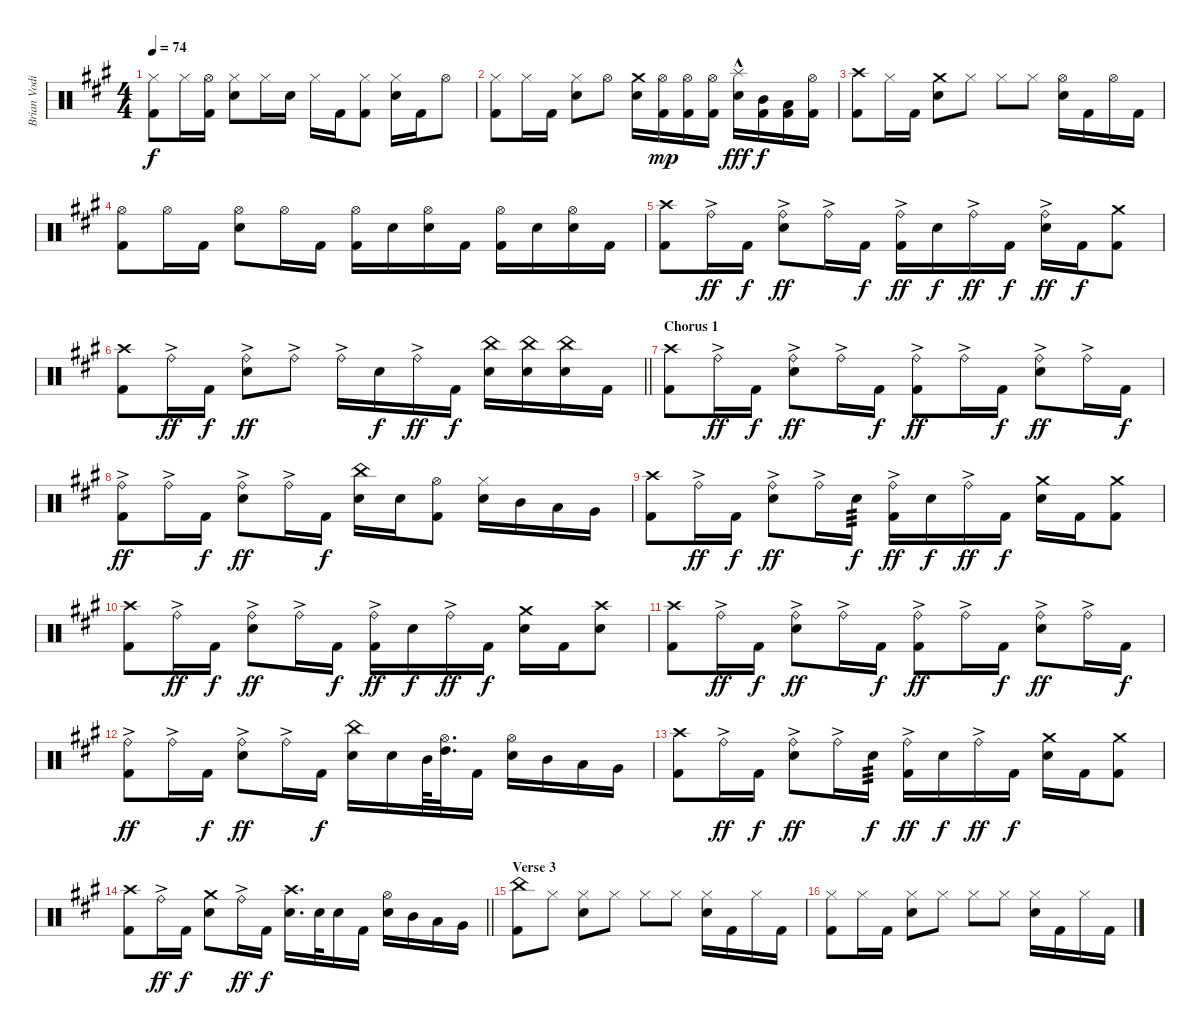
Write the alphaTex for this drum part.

\track ("Brian Vodinh" "Brian Vodi") {instrument percussion}
\staff {score}
\articulation defaults
\ts (4 4)
\tempo 74
\clef neutral
\ks f#minor
("Hi-Hat (closed)" "Kick (hit) 2").8{dy f} "Hi-Hat (closed)".16 ("Hi-Hat (open)" "Kick (hit) 2").16 ("Hi-Hat (closed)" "Electric Snare (hit)").8 "Hi-Hat (closed)".16 "Electric Snare (hit)".16 "Hi-Hat (closed)".16 "Kick (hit) 2".16 ("Hi-Hat (closed)" "Kick (hit) 2").8 ("Hi-Hat (closed)" "Electric Snare (hit)").16 "Kick (hit) 2".16 "Hi-Hat (open)".8 |
("Hi-Hat (closed)" "Kick (hit) 2").8 "Hi-Hat (closed)".16 "Kick (hit) 2".16 ("Hi-Hat (closed)" "Electric Snare (hit)").8 "Hi-Hat (open)".8 ("Crash medium (hit)" "Electric Snare (hit)").16 ("Hi-Hat (open)" "Kick (hit) 2").16{dy mp} ("Hi-Hat (open)" "Kick (hit) 2").16 ("Hi-Hat (open)" "Kick (hit) 2").16 ("Splash (hit)"{hac} "Electric Snare (hit)").16{dy fff} ("Mid Tom (hit)" "Kick (hit) 2").16{dy f} ("Low Tom (hit)" "Kick (hit) 2").16 ("Hi-Hat (open)" "Kick (hit) 2").16 |
("Crash high (hit)" "Kick (hit) 2").8 "Hi-Hat (closed)".16 "Kick (hit) 2".16 ("Crash medium (hit)" "Electric Snare (hit)").8 "Hi-Hat (closed)".8 "Hi-Hat (closed)".8 "Hi-Hat (closed)".8 ("Hi-Hat (open)" "Electric Snare (hit)").16 "Kick (hit) 2".16 "Hi-Hat (open)".16 "Kick (hit) 2".16 |
("Hi-Hat (open)" "Kick (hit) 2").8 "Hi-Hat (open)".16 "Kick (hit) 2".16 ("Hi-Hat (open)" "Electric Snare (hit)").8 "Hi-Hat (open)".16 "Kick (hit) 2".16 ("Hi-Hat (open)" "Kick (hit) 2").16 "Electric Snare (hit)".16 ("Hi-Hat (open)" "Electric Snare (hit)").16 "Kick (hit) 2".16 ("Hi-Hat (open)" "Kick (hit) 2").16 "Electric Snare (hit)".16 ("Hi-Hat (open)" "Electric Snare (hit)").16 "Kick (hit) 2".16 |
("Crash high (hit)" "Kick (hit) 2").8 "Ride (bell)"{ac}.16{dy ff} "Kick (hit) 2".16{dy f} ("Ride (bell)"{ac} "Electric Snare (hit)").8{dy ff} "Ride (bell)"{ac}.16 "Kick (hit) 2".16{dy f} ("Ride (bell)"{ac} "Kick (hit) 2").16{dy ff} "Electric Snare (hit)".16{dy f} "Ride (bell)"{ac}.16{dy ff} "Kick (hit) 2".16{dy f} ("Ride (bell)"{ac} "Electric Snare (hit)").16{dy ff} "Kick (hit) 2".16{dy f} ("Crash medium (hit)" "Kick (hit) 2").8 |
\barLineRight lightlight
("Crash high (hit)" "Kick (hit) 2").8 "Ride (bell)"{ac}.16{dy ff} "Kick (hit) 2".16{dy f} ("Ride (bell)"{ac} "Electric Snare (hit)").8{dy ff} "Ride (bell)"{ac}.8 "Ride (bell)"{ac}.16 "Electric Snare (hit)".16{dy f} "Ride (bell)"{ac}.16{dy ff} "Kick (hit) 2".16{dy f} ("China (hit)" "Electric Snare (hit)").16 ("China (hit)" "Electric Snare (hit)").16 ("China (hit)" "Electric Snare (hit)").16 "Kick (hit) 2".16 |
\section ("" "Chorus 1")
("Crash high (hit)" "Kick (hit) 2").8 "Ride (bell)"{ac}.16{dy ff} "Kick (hit) 2".16{dy f} ("Ride (bell)"{ac} "Electric Snare (hit)").8{dy ff} "Ride (bell)"{ac}.16 "Kick (hit) 2".16{dy f} ("Ride (bell)"{ac} "Kick (hit) 2").8{dy ff} "Ride (bell)"{ac}.16 "Kick (hit) 2".16{dy f} ("Ride (bell)"{ac} "Electric Snare (hit)").8{dy ff} "Ride (bell)"{ac}.16 "Kick (hit) 2".16{dy f} |
("Ride (bell)"{ac} "Kick (hit) 2").8{dy ff} "Ride (bell)"{ac}.16 "Kick (hit) 2".16{dy f} ("Ride (bell)"{ac} "Electric Snare (hit)").8{dy ff} "Ride (bell)"{ac}.16 "Kick (hit) 2".16{dy f} ("China (hit)" "Electric Snare (hit)").16 "Electric Snare (hit)".16 ("Hi-Hat (open)" "Kick (hit) 2").8 ("Hi-Hat (closed)" "Electric Snare (hit)").16 "Mid Tom (hit)".16 "Low Tom (hit)".16 "Very Low Tom (hit)".16 |
("Crash high (hit)" "Kick (hit) 2").8 "Ride (bell)"{ac}.16{dy ff} "Kick (hit) 2".16{dy f} ("Ride (bell)"{ac} "Electric Snare (hit)").8{dy ff} "Ride (bell)"{ac}.16 "Electric Snare (hit)".16{tp 3 dy f} ("Ride (bell)"{ac} "Kick (hit) 2").16{dy ff} "Electric Snare (hit)".16{dy f} "Ride (bell)"{ac}.16{dy ff} "Kick (hit) 2".16{dy f} ("Crash medium (hit)" "Electric Snare (hit)").16 "Kick (hit) 2".16 ("Crash medium (hit)" "Kick (hit) 2").8 |
("Crash high (hit)" "Kick (hit) 2").8 "Ride (bell)"{ac}.16{dy ff} "Kick (hit) 2".16{dy f} ("Ride (bell)"{ac} "Electric Snare (hit)").8{dy ff} "Ride (bell)"{ac}.16 "Kick (hit) 2".16{dy f} ("Ride (bell)"{ac} "Kick (hit) 2").16{dy ff} "Electric Snare (hit)".16{dy f} "Ride (bell)"{ac}.16{dy ff} "Kick (hit) 2".16{dy f} ("Crash medium (hit)" "Electric Snare (hit)").16 "Kick (hit) 2".16 ("Crash high (hit)" "Electric Snare (hit)").8 |
("Crash high (hit)" "Kick (hit) 2").8 "Ride (bell)"{ac}.16{dy ff} "Kick (hit) 2".16{dy f} ("Ride (bell)"{ac} "Electric Snare (hit)").8{dy ff} "Ride (bell)"{ac}.16 "Kick (hit) 2".16{dy f} ("Ride (bell)"{ac} "Kick (hit) 2").8{dy ff} "Ride (bell)"{ac}.16 "Kick (hit) 2".16{dy f} ("Ride (bell)"{ac} "Electric Snare (hit)").8{dy ff} "Ride (bell)"{ac}.16 "Kick (hit) 2".16{dy f} |
("Ride (bell)"{ac} "Kick (hit) 2").8{dy ff} "Ride (bell)"{ac}.16 "Kick (hit) 2".16{dy f} ("Ride (bell)"{ac} "Electric Snare (hit)").8{dy ff} "Ride (bell)"{ac}.16 "Kick (hit) 2".16{dy f} ("China (hit)" "Electric Snare (hit)").16 "Electric Snare (hit)".16 "Mid Tom (hit)".64 ("Hi-Hat (open)" "High Tom (hit)").32{d} "Kick (hit) 2".16 ("Hi-Hat (open)" "Electric Snare (hit)").16 "Mid Tom (hit)".16 "Low Tom (hit)".16 "Very Low Tom (hit)".16 |
("Crash high (hit)" "Kick (hit) 2").8 "Ride (bell)"{ac}.16{dy ff} "Kick (hit) 2".16{dy f} ("Ride (bell)"{ac} "Electric Snare (hit)").8{dy ff} "Ride (bell)"{ac}.16 "Electric Snare (hit)".16{tp 3 dy f} ("Ride (bell)"{ac} "Kick (hit) 2").16{dy ff} "Electric Snare (hit)".16{dy f} "Ride (bell)"{ac}.16{dy ff} "Kick (hit) 2".16{dy f} ("Crash medium (hit)" "Electric Snare (hit)").16 "Kick (hit) 2".16 ("Crash medium (hit)" "Kick (hit) 2").8 |
\barLineRight lightlight
("Crash high (hit)" "Kick (hit) 2").8 "Ride (bell)"{ac}.16{dy ff} "Kick (hit) 2".16{dy f} ("Crash medium (hit)" "Electric Snare (hit)").8 "Ride (bell)"{ac}.16{dy ff} "Kick (hit) 2".16{dy f} ("Crash high (hit)" "Electric Snare (hit)").16{d} "Electric Snare (hit)".32 "Electric Snare (hit)".16 "Kick (hit) 2".16 ("Hi-Hat (open)" "Electric Snare (hit)").16 "Mid Tom (hit)".16 "Low Tom (hit)".16 "Very Low Tom (hit)".16 |
\section ("" "Verse 3")
("China (hit)" "Kick (hit) 2").8 "Hi-Hat (closed)".8 ("Hi-Hat (closed)" "Electric Snare (hit)").8 "Hi-Hat (closed)".8 "Hi-Hat (closed)".8 "Hi-Hat (closed)".8 ("Hi-Hat (closed)" "Electric Snare (hit)").16 "Kick (hit) 2".16 "Hi-Hat (closed)".16 "Kick (hit) 2".16 |
("Hi-Hat (closed)" "Kick (hit) 2").8 "Hi-Hat (closed)".16 "Kick (hit) 2".16 ("Hi-Hat (closed)" "Electric Snare (hit)").8 "Hi-Hat (closed)".8 "Hi-Hat (closed)".8 "Hi-Hat (closed)".8 ("Hi-Hat (closed)" "Electric Snare (hit)").16 "Kick (hit) 2".16 "Hi-Hat (closed)".16 "Kick (hit) 2".16
